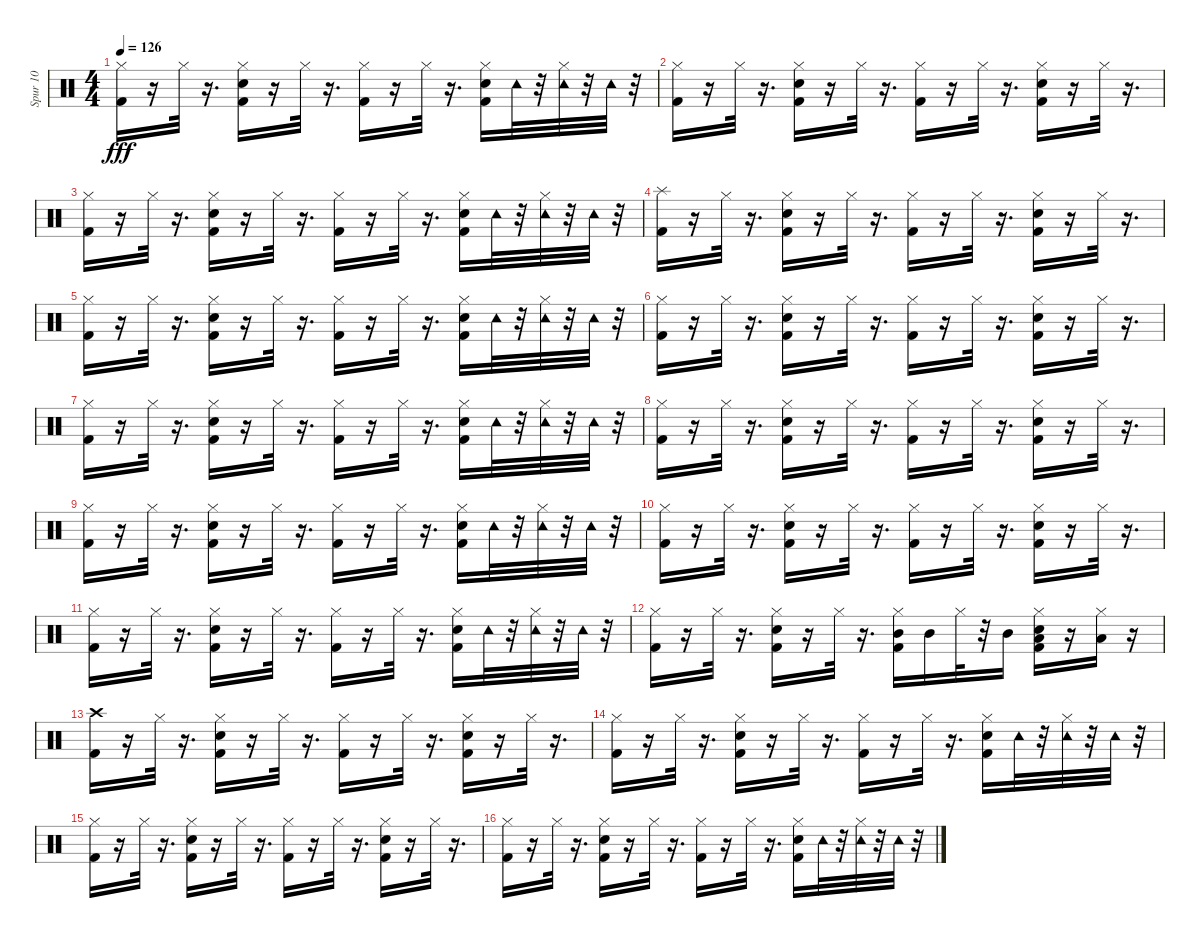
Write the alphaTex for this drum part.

\track ("Spur 10" "Spur 10") {instrument percussion}
\staff {score}
\articulation defaults
\ts (4 4)
\tempo 126
\clef neutral
\ks c
("Hi-Hat (closed)" "Kick (hit) 2").16{dy fff} r.16 "Hi-Hat (closed)".32 r.16{d} ("Hi-Hat (closed)" "Snare (hit) 2" "Kick (hit) 2").16 r.16 "Hi-Hat (closed)".32 r.16{d} ("Hi-Hat (closed)" "Kick (hit) 2").16 r.16 "Hi-Hat (closed)".32 r.16{d} ("Hi-Hat (closed)" "Snare (hit) 2" "Kick (hit) 2").16 "Tambourine (hit)".32 r.32 ("Hi-Hat (closed)" "Tambourine (hit)").32 r.32 "Tambourine (hit)".32 r.32 |
("Hi-Hat (closed)" "Kick (hit) 2").16 r.16 "Hi-Hat (closed)".32 r.16{d} ("Hi-Hat (closed)" "Kick (hit) 2" "Snare (hit) 2").16 r.16 "Hi-Hat (closed)".32 r.16{d} ("Hi-Hat (closed)" "Kick (hit) 2").16 r.16 "Hi-Hat (closed)".32 r.16{d} ("Hi-Hat (closed)" "Snare (hit) 2" "Kick (hit) 2").16 r.16 "Hi-Hat (closed)".32 r.16{d} |
("Hi-Hat (closed)" "Kick (hit) 2").16 r.16 "Hi-Hat (closed)".32 r.16{d} ("Hi-Hat (closed)" "Snare (hit) 2" "Kick (hit) 2").16 r.16 "Hi-Hat (closed)".32 r.16{d} ("Hi-Hat (closed)" "Kick (hit) 2").16 r.16 "Hi-Hat (closed)".32 r.16{d} ("Hi-Hat (closed)" "Snare (hit) 2" "Kick (hit) 2").16 "Tambourine (hit)".32 r.32 ("Hi-Hat (closed)" "Tambourine (hit)").32 r.32 "Tambourine (hit)".32 r.32 |
("Splash (hit)" "Kick (hit) 2").16 r.16 "Hi-Hat (closed)".32 r.16{d} ("Hi-Hat (closed)" "Kick (hit) 2" "Snare (hit) 2").16 r.16 "Hi-Hat (closed)".32 r.16{d} ("Hi-Hat (closed)" "Kick (hit) 2").16 r.16 "Hi-Hat (closed)".32 r.16{d} ("Hi-Hat (closed)" "Snare (hit) 2" "Kick (hit) 2").16 r.16 "Hi-Hat (closed)".32 r.16{d} |
("Hi-Hat (closed)" "Kick (hit) 2").16 r.16 "Hi-Hat (closed)".32 r.16{d} ("Hi-Hat (closed)" "Snare (hit) 2" "Kick (hit) 2").16 r.16 "Hi-Hat (closed)".32 r.16{d} ("Hi-Hat (closed)" "Kick (hit) 2").16 r.16 "Hi-Hat (closed)".32 r.16{d} ("Hi-Hat (closed)" "Snare (hit) 2" "Kick (hit) 2").16 "Tambourine (hit)".32 r.32 ("Hi-Hat (closed)" "Tambourine (hit)").32 r.32 "Tambourine (hit)".32 r.32 |
("Hi-Hat (closed)" "Kick (hit) 2").16 r.16 "Hi-Hat (closed)".32 r.16{d} ("Hi-Hat (closed)" "Kick (hit) 2" "Snare (hit) 2").16 r.16 "Hi-Hat (closed)".32 r.16{d} ("Hi-Hat (closed)" "Kick (hit) 2").16 r.16 "Hi-Hat (closed)".32 r.16{d} ("Hi-Hat (closed)" "Snare (hit) 2" "Kick (hit) 2").16 r.16 "Hi-Hat (closed)".32 r.16{d} |
("Hi-Hat (closed)" "Kick (hit) 2").16 r.16 "Hi-Hat (closed)".32 r.16{d} ("Hi-Hat (closed)" "Snare (hit) 2" "Kick (hit) 2").16 r.16 "Hi-Hat (closed)".32 r.16{d} ("Hi-Hat (closed)" "Kick (hit) 2").16 r.16 "Hi-Hat (closed)".32 r.16{d} ("Hi-Hat (closed)" "Snare (hit) 2" "Kick (hit) 2").16 "Tambourine (hit)".32 r.32 ("Hi-Hat (closed)" "Tambourine (hit)").32 r.32 "Tambourine (hit)".32 r.32 |
("Hi-Hat (closed)" "Kick (hit) 2").16 r.16 "Hi-Hat (closed)".32 r.16{d} ("Hi-Hat (closed)" "Kick (hit) 2" "Snare (hit) 2").16 r.16 "Hi-Hat (closed)".32 r.16{d} ("Hi-Hat (closed)" "Kick (hit) 2").16 r.16 "Hi-Hat (closed)".32 r.16{d} ("Hi-Hat (closed)" "Snare (hit) 2" "Kick (hit) 2").16 r.16 "Hi-Hat (closed)".32 r.16{d} |
("Hi-Hat (closed)" "Kick (hit) 2").16 r.16 "Hi-Hat (closed)".32 r.16{d} ("Hi-Hat (closed)" "Snare (hit) 2" "Kick (hit) 2").16 r.16 "Hi-Hat (closed)".32 r.16{d} ("Hi-Hat (closed)" "Kick (hit) 2").16 r.16 "Hi-Hat (closed)".32 r.16{d} ("Hi-Hat (closed)" "Snare (hit) 2" "Kick (hit) 2").16 "Tambourine (hit)".32 r.32 ("Hi-Hat (closed)" "Tambourine (hit)").32 r.32 "Tambourine (hit)".32 r.32 |
("Hi-Hat (closed)" "Kick (hit) 2").16 r.16 "Hi-Hat (closed)".32 r.16{d} ("Hi-Hat (closed)" "Kick (hit) 2" "Snare (hit) 2").16 r.16 "Hi-Hat (closed)".32 r.16{d} ("Hi-Hat (closed)" "Kick (hit) 2").16 r.16 "Hi-Hat (closed)".32 r.16{d} ("Hi-Hat (closed)" "Snare (hit) 2" "Kick (hit) 2").16 r.16 "Hi-Hat (closed)".32 r.16{d} |
("Hi-Hat (closed)" "Kick (hit) 2").16 r.16 "Hi-Hat (closed)".32 r.16{d} ("Hi-Hat (closed)" "Snare (hit) 2" "Kick (hit) 2").16 r.16 "Hi-Hat (closed)".32 r.16{d} ("Hi-Hat (closed)" "Kick (hit) 2").16 r.16 "Hi-Hat (closed)".32 r.16{d} ("Hi-Hat (closed)" "Snare (hit) 2" "Kick (hit) 2").16 "Tambourine (hit)".32 r.32 ("Hi-Hat (closed)" "Tambourine (hit)").32 r.32 "Tambourine (hit)".32 r.32 |
("Hi-Hat (closed)" "Kick (hit) 2").16 r.16 "Hi-Hat (closed)".32 r.16{d} ("Hi-Hat (closed)" "Kick (hit) 2" "Snare (hit) 2").16 r.16 "Hi-Hat (closed)".32 r.16{d} ("Hi-Hat (closed)" "Mid Tom (hit)" "Kick (hit) 2").16 "Mid Tom (hit)".16 "Hi-Hat (closed)".32 r.32 "Mid Tom (hit)".16 ("Hi-Hat (closed)" "Low Tom (hit)" "Snare (hit) 2" "Kick (hit) 2").16 r.16 ("Hi-Hat (closed)" "Low Tom (hit)").16 r.16 |
("Crash high (hit)" "Kick (hit) 2").16 r.16 "Hi-Hat (closed)".32 r.16{d} ("Hi-Hat (closed)" "Kick (hit) 2" "Snare (hit) 2").16 r.16 "Hi-Hat (closed)".32 r.16{d} ("Hi-Hat (closed)" "Kick (hit) 2").16 r.16 "Hi-Hat (closed)".32 r.16{d} ("Hi-Hat (closed)" "Snare (hit) 2" "Kick (hit) 2").16 r.16 "Hi-Hat (closed)".32 r.16{d} |
("Hi-Hat (closed)" "Kick (hit) 2").16 r.16 "Hi-Hat (closed)".32 r.16{d} ("Hi-Hat (closed)" "Snare (hit) 2" "Kick (hit) 2").16 r.16 "Hi-Hat (closed)".32 r.16{d} ("Hi-Hat (closed)" "Kick (hit) 2").16 r.16 "Hi-Hat (closed)".32 r.16{d} ("Hi-Hat (closed)" "Snare (hit) 2" "Kick (hit) 2").16 "Tambourine (hit)".32 r.32 ("Hi-Hat (closed)" "Tambourine (hit)").32 r.32 "Tambourine (hit)".32 r.32 |
("Hi-Hat (closed)" "Kick (hit) 2").16 r.16 "Hi-Hat (closed)".32 r.16{d} ("Hi-Hat (closed)" "Kick (hit) 2" "Snare (hit) 2").16 r.16 "Hi-Hat (closed)".32 r.16{d} ("Hi-Hat (closed)" "Kick (hit) 2").16 r.16 "Hi-Hat (closed)".32 r.16{d} ("Hi-Hat (closed)" "Snare (hit) 2" "Kick (hit) 2").16 r.16 "Hi-Hat (closed)".32 r.16{d} |
("Hi-Hat (closed)" "Kick (hit) 2").16 r.16 "Hi-Hat (closed)".32 r.16{d} ("Hi-Hat (closed)" "Snare (hit) 2" "Kick (hit) 2").16 r.16 "Hi-Hat (closed)".32 r.16{d} ("Hi-Hat (closed)" "Kick (hit) 2").16 r.16 "Hi-Hat (closed)".32 r.16{d} ("Hi-Hat (closed)" "Snare (hit) 2" "Kick (hit) 2").16 "Tambourine (hit)".32 r.32 ("Hi-Hat (closed)" "Tambourine (hit)").32 r.32 "Tambourine (hit)".32 r.32
